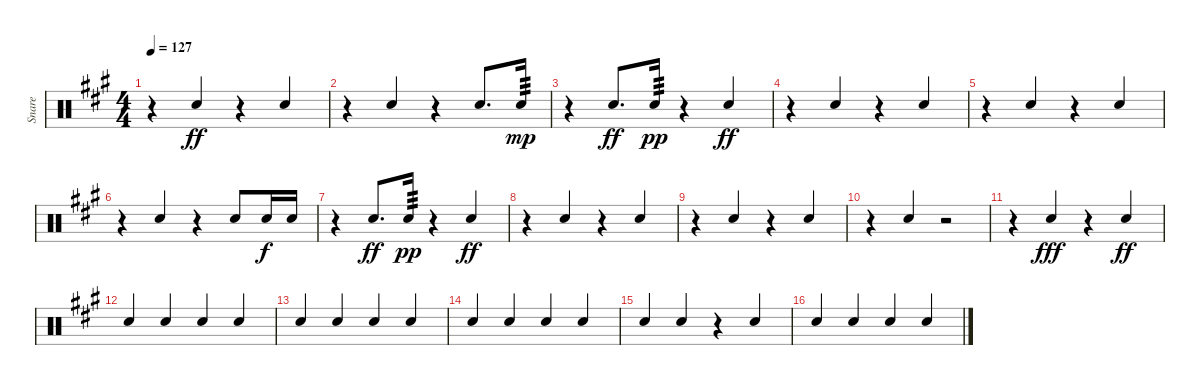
\track ("Snare" "Snare") {instrument percussion}
\staff {score}
\articulation defaults
\ts (4 4)
\tempo 127
\clef neutral
\ks a
r.4{dy ff beam merge} "Electric Snare (hit)".4{beam Up} r.4{beam merge} "Electric Snare (hit)".4{beam Up} |
r.4{beam merge} "Electric Snare (hit)".4{beam Up} r.4 "Electric Snare (hit)".8{d beam Up} "Electric Snare (hit)".16{tp 3 dy mp beam Up} |
r.4 "Electric Snare (hit)".8{d dy ff beam Up} "Electric Snare (hit)".16{tp 3 dy pp beam Up} r.4{beam merge} "Electric Snare (hit)".4{dy ff beam Up} |
r.4{beam merge} "Electric Snare (hit)".4{beam Up} r.4{beam merge} "Electric Snare (hit)".4{beam Up} |
r.4{beam merge} "Electric Snare (hit)".4{beam Up} r.4{beam merge} "Electric Snare (hit)".4{beam Up} |
r.4{beam merge} "Electric Snare (hit)".4{beam Up} r.4 "Electric Snare (hit)".8{beam Up} "Electric Snare (hit)".16{dy f beam Up} "Electric Snare (hit)".16{beam Up} |
r.4 "Electric Snare (hit)".8{d dy ff beam Up} "Electric Snare (hit)".16{tp 3 dy pp beam Up} r.4{beam merge} "Electric Snare (hit)".4{dy ff beam Up} |
r.4{beam merge} "Electric Snare (hit)".4{beam Up} r.4{beam merge} "Electric Snare (hit)".4{beam Up} |
r.4{beam merge} "Electric Snare (hit)".4{beam Up} r.4{beam merge} "Electric Snare (hit)".4{beam Up} |
r.4 "Electric Snare (hit)".4{beam Up} r.2 |
r.4 "Electric Snare (hit)".4{dy fff beam Up} r.4 "Electric Snare (hit)".4{dy ff beam Up} |
"Electric Snare (hit)".4{beam Up} "Electric Snare (hit)".4{beam Up} "Electric Snare (hit)".4{beam Up} "Electric Snare (hit)".4{beam Up} |
"Electric Snare (hit)".4{beam Up} "Electric Snare (hit)".4{beam Up} "Electric Snare (hit)".4{beam Up} "Electric Snare (hit)".4{beam Up} |
"Electric Snare (hit)".4{beam Up} "Electric Snare (hit)".4{beam Up} "Electric Snare (hit)".4{beam Up} "Electric Snare (hit)".4{beam Up} |
"Electric Snare (hit)".4{beam Up beam merge} "Electric Snare (hit)".4{beam Up} r.4 "Electric Snare (hit)".4{beam Up} |
"Electric Snare (hit)".4{beam Up} "Electric Snare (hit)".4{beam Up} "Electric Snare (hit)".4{beam Up} "Electric Snare (hit)".4{beam Up}
